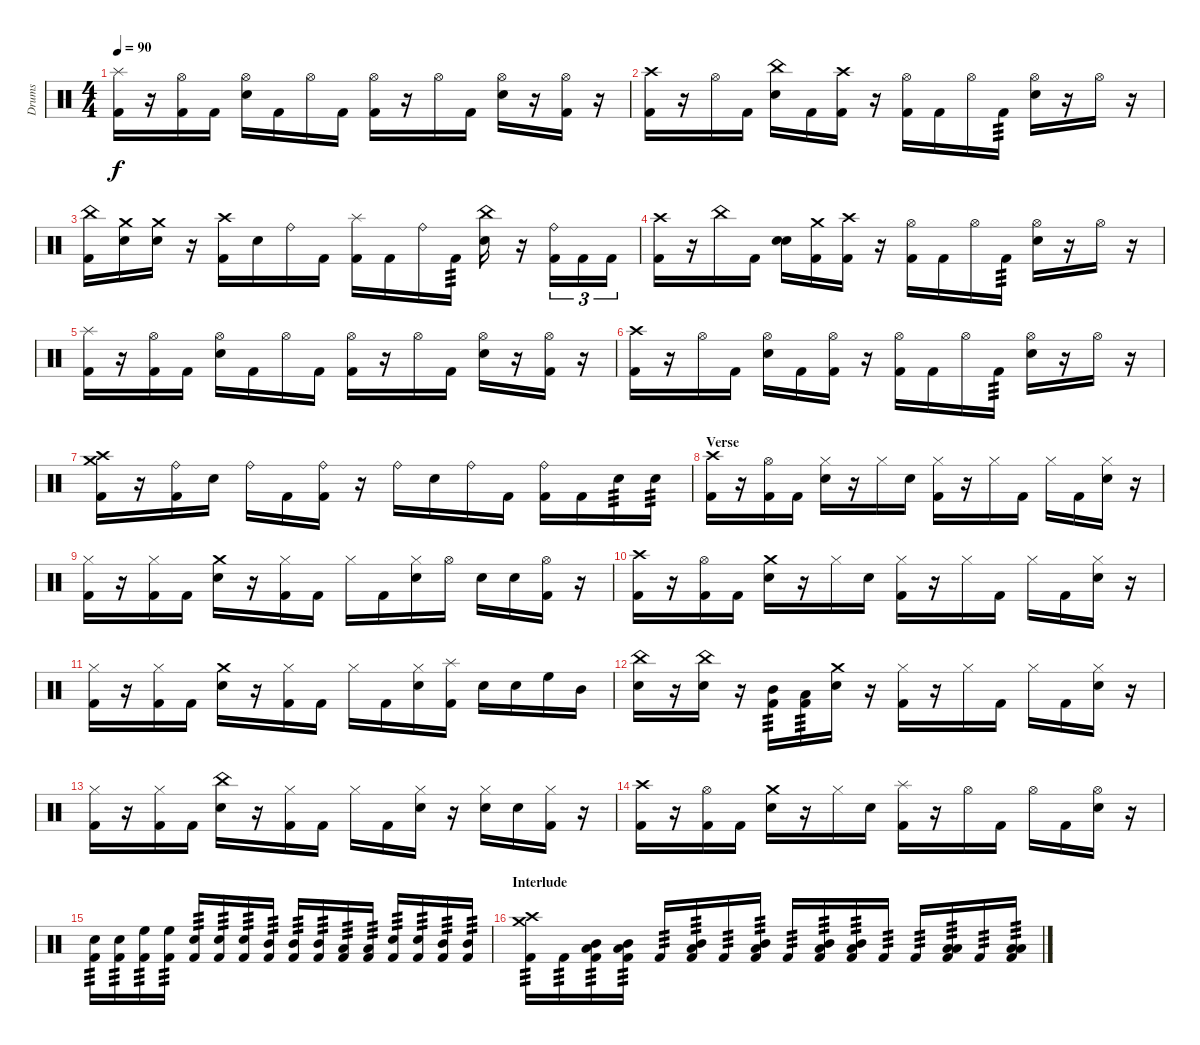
\track ("Drums" "Drums") {instrument percussion}
\staff {score}
\articulation defaults
\ts (4 4)
\tempo 90
\clef neutral
\ks c
("Splash (hit)" "Kick (hit) 2").16{dy f} r.16 ("Hi-Hat (open)" "Kick (hit) 2").16 "Kick (hit) 2".16 ("Hi-Hat (open)" "Snare (hit) 2").16 "Kick (hit) 2".16 "Hi-Hat (open)".16 "Kick (hit) 2".16 ("Hi-Hat (open)" "Kick (hit) 2").16 r.16 "Hi-Hat (open)".16 "Kick (hit) 2".16 ("Hi-Hat (open)" "Snare (hit) 2").16 r.16 ("Hi-Hat (open)" "Kick (hit) 2").16 r.16 |
("Crash high (hit)" "Kick (hit) 2").16 r.16 "Hi-Hat (open)".16 "Kick (hit) 2".16 ("China (hit)" "Snare (hit) 2").16 "Kick (hit) 2".16 ("Crash high (hit)" "Kick (hit) 2").16 r.16 ("Hi-Hat (open)" "Kick (hit) 2").16 "Kick (hit) 2".16 "Hi-Hat (open)".16 "Kick (hit) 2".16{tp 3} ("Hi-Hat (open)" "Snare (hit) 2").16 r.16 "Hi-Hat (open)".16 r.16 |
("China (hit)" "Kick (hit) 2").16 ("Crash medium (hit)" "Snare (hit) 2").16 ("Crash medium (hit)" "Snare (hit) 2").16 r.16 ("Crash high (hit)" "Kick (hit) 2").16 "Snare (hit) 2".16 "Ride (bell)".16 "Kick (hit) 2".16 ("Splash (hit)" "Kick (hit) 2").16 "Kick (hit) 2".16 "Ride (bell)".16 "Kick (hit) 2".16{tp 3} ("China (hit)" "Snare (hit) 2").16 r.16 ("Ride (bell)" "Kick (hit) 2").16{tu (3 2)} "Kick (hit) 2".16{tu (3 2)} "Kick (hit) 2".16{tu (3 2)} |
("Crash high (hit)" "Kick (hit) 2").16 r.16 "China (hit)".16 "Kick (hit) 2".16 ("Snare (hit) 2" "Snare (hit) 2").16 ("Crash medium (hit)" "Kick (hit) 2").16 ("Crash high (hit)" "Kick (hit) 2").16 r.16 ("Hi-Hat (open)" "Kick (hit) 2").16 "Kick (hit) 2".16 "Hi-Hat (open)".16 "Kick (hit) 2".16{tp 3} ("Hi-Hat (open)" "Snare (hit) 2").16 r.16 "Hi-Hat (open)".16 r.16 |
("Splash (hit)" "Kick (hit) 2").16 r.16 ("Hi-Hat (open)" "Kick (hit) 2").16 "Kick (hit) 2".16 ("Hi-Hat (open)" "Snare (hit) 2").16 "Kick (hit) 2".16 "Hi-Hat (open)".16 "Kick (hit) 2".16 ("Hi-Hat (open)" "Kick (hit) 2").16 r.16 "Hi-Hat (open)".16 "Kick (hit) 2".16 ("Hi-Hat (open)" "Snare (hit) 2").16 r.16 ("Hi-Hat (open)" "Kick (hit) 2").16 r.16 |
("Crash high (hit)" "Kick (hit) 2").16 r.16 "Hi-Hat (open)".16 "Kick (hit) 2".16 ("Hi-Hat (open)" "Snare (hit) 2").16 "Kick (hit) 2".16 ("Hi-Hat (open)" "Kick (hit) 2").16 r.16 ("Hi-Hat (open)" "Kick (hit) 2").16 "Kick (hit) 2".16 "Hi-Hat (open)".16 "Kick (hit) 2".16{tp 3} ("Hi-Hat (open)" "Snare (hit) 2").16 r.16 "Hi-Hat (open)".16 r.16 |
("Crash high (hit)" "Crash medium (hit)" "Kick (hit) 2").16 r.16 ("Ride (bell)" "Kick (hit) 2").16 "Snare (hit) 2".16 "Ride (bell)".16 "Kick (hit) 2".16 ("Ride (bell)" "Kick (hit) 2").16 r.16 "Ride (bell)".16 "Snare (hit) 2".16 "Ride (bell)".16 "Kick (hit) 2".16 ("Ride (bell)" "Kick (hit) 2").16 "Kick (hit) 2".16 "Snare (hit) 2".16{tp 3} "Snare (hit) 2".16{tp 3} |
\section ("" "Verse")
("Crash high (hit)" "Kick (hit) 2").16 r.16 ("Hi-Hat (open)" "Kick (hit) 2").16 "Kick (hit) 2".16 ("Hi-Hat (closed)" "Snare (hit) 2").16 r.16 "Hi-Hat (closed)".16 "Snare (hit) 2".16 ("Hi-Hat (closed)" "Kick (hit) 2").16 r.16 "Hi-Hat (closed)".16 "Kick (hit) 2".16 "Hi-Hat (closed)".16 "Kick (hit) 2".16 ("Hi-Hat (closed)" "Snare (hit) 2").16 r.16 |
("Hi-Hat (closed)" "Kick (hit) 2").16 r.16 ("Hi-Hat (closed)" "Kick (hit) 2").16 "Kick (hit) 2".16 ("Crash medium (hit)" "Snare (hit) 2").16 r.16 ("Hi-Hat (closed)" "Kick (hit) 2").16 "Kick (hit) 2".16 "Hi-Hat (closed)".16 "Kick (hit) 2".16 ("Hi-Hat (closed)" "Snare (hit) 2").16 "Hi-Hat (open)".16 "Snare (hit) 2".16 "Snare (hit) 2".16 ("Hi-Hat (open)" "Kick (hit) 2").16 r.16 |
("Crash high (hit)" "Kick (hit) 2").16 r.16 ("Hi-Hat (open)" "Kick (hit) 2").16 "Kick (hit) 2".16 ("Crash medium (hit)" "Snare (hit) 2").16 r.16 "Hi-Hat (closed)".16 "Snare (hit) 2".16 ("Hi-Hat (closed)" "Kick (hit) 2").16 r.16 "Hi-Hat (closed)".16 "Kick (hit) 2".16 "Hi-Hat (closed)".16 "Kick (hit) 2".16 ("Hi-Hat (closed)" "Snare (hit) 2").16 r.16 |
("Hi-Hat (closed)" "Kick (hit) 2").16 r.16 ("Hi-Hat (closed)" "Kick (hit) 2").16 "Kick (hit) 2".16 ("Crash medium (hit)" "Snare (hit) 2").16 r.16 ("Hi-Hat (closed)" "Kick (hit) 2").16 "Kick (hit) 2".16 "Hi-Hat (closed)".16 "Kick (hit) 2".16 ("Hi-Hat (closed)" "Snare (hit) 2").16 ("Splash (hit)" "Kick (hit) 2").16 "Snare (hit) 2".16 "Snare (hit) 2".16 "High Floor Tom (hit)".16 "Mid Tom (hit)".16 |
("China (hit)" "Snare (hit) 2").16 r.16 ("China (hit)" "Snare (hit) 2").16 r.16 ("Mid Tom (hit)" "Kick (hit) 2").16{tp 3} ("Low Tom (hit)" "Kick (hit) 2").16{tp 3} ("Crash medium (hit)" "Snare (hit) 2").16 r.16 ("Hi-Hat (closed)" "Kick (hit) 2").16 r.16 "Hi-Hat (closed)".16 "Kick (hit) 2".16 "Hi-Hat (closed)".16 "Kick (hit) 2".16 ("Hi-Hat (closed)" "Snare (hit) 2").16 r.16 |
("Hi-Hat (closed)" "Kick (hit) 2").16 r.16 ("Hi-Hat (closed)" "Kick (hit) 2").16 "Kick (hit) 2".16 ("China (hit)" "Snare (hit) 2").16 r.16 ("Hi-Hat (closed)" "Kick (hit) 2").16 "Kick (hit) 2".16 "Hi-Hat (closed)".16 "Kick (hit) 2".16 ("Hi-Hat (closed)" "Snare (hit) 2").16 r.16 ("Hi-Hat (closed)" "Snare (hit) 2").16 "Snare (hit) 2".16 ("Hi-Hat (closed)" "Kick (hit) 2").16 r.16 |
("Crash high (hit)" "Kick (hit) 2").16 r.16 ("Hi-Hat (open)" "Kick (hit) 2").16 "Kick (hit) 2".16 ("Crash medium (hit)" "Snare (hit) 2").16 r.16 "Hi-Hat (closed)".16 "Snare (hit) 2".16 ("Splash (hit)" "Kick (hit) 2").16 r.16 "Hi-Hat (open)".16 "Kick (hit) 2".16 "Hi-Hat (open)".16 "Kick (hit) 2".16 ("Hi-Hat (open)" "Snare (hit) 2").16 r.16 |
("Snare (hit) 2" "Kick (hit) 2").16{tp 3} ("Snare (hit) 2" "Kick (hit) 2").16{tp 3} ("High Floor Tom (hit)" "Kick (hit) 2").16{tp 3} ("High Floor Tom (hit)" "Kick (hit) 2").16{tp 3} ("Snare (hit) 2" "Kick (hit) 2").16{tp 3} ("Snare (hit) 2" "Kick (hit) 2").16{tp 3} ("Snare (hit) 2" "Kick (hit) 2").16{tp 3} ("Mid Tom (hit)" "Kick (hit) 2").16{tp 3} ("Mid Tom (hit)" "Kick (hit) 2").16{tp 3} ("Mid Tom (hit)" "Kick (hit) 2").16{tp 3} ("Low Tom (hit)" "Kick (hit) 2").16{tp 3} ("Low Tom (hit)" "Kick (hit) 2").16{tp 3} ("Snare (hit) 2" "Kick (hit) 2").16{tp 3} ("Snare (hit) 2" "Kick (hit) 2").16{tp 3} ("Mid Tom (hit)" "Kick (hit) 2").16{tp 3} ("Mid Tom (hit)" "Kick (hit) 2").16{tp 3} |
\section ("" "Interlude")
("Crash high (hit)" "Crash medium (hit)" "Kick (hit) 2").16{tp 3} "Kick (hit) 2".16{tp 3} ("Mid Tom (hit)" "Low Tom (hit)" "Kick (hit) 2").16{tp 3} ("Mid Tom (hit)" "Low Tom (hit)" "Kick (hit) 2").16{tp 3} "Kick (hit) 2".16{tp 3} ("Mid Tom (hit)" "Low Tom (hit)" "Kick (hit) 2").16{tp 3} "Kick (hit) 2".16{tp 3} ("Mid Tom (hit)" "Low Tom (hit)" "Kick (hit) 2").16{tp 3} "Kick (hit) 2".16{tp 3} ("Mid Tom (hit)" "Low Tom (hit)" "Kick (hit) 2").16{tp 3} ("Mid Tom (hit)" "Low Tom (hit)" "Kick (hit) 2").16{tp 3} "Kick (hit) 2".16{tp 3} "Kick (hit) 2".16{tp 3} ("Low Tom (hit)" "Low Floor Tom (hit)" "Kick (hit) 2").16{tp 3} "Kick (hit) 2".16{tp 3} ("Low Tom (hit)" "Low Floor Tom (hit)" "Kick (hit) 2").16{tp 3}
